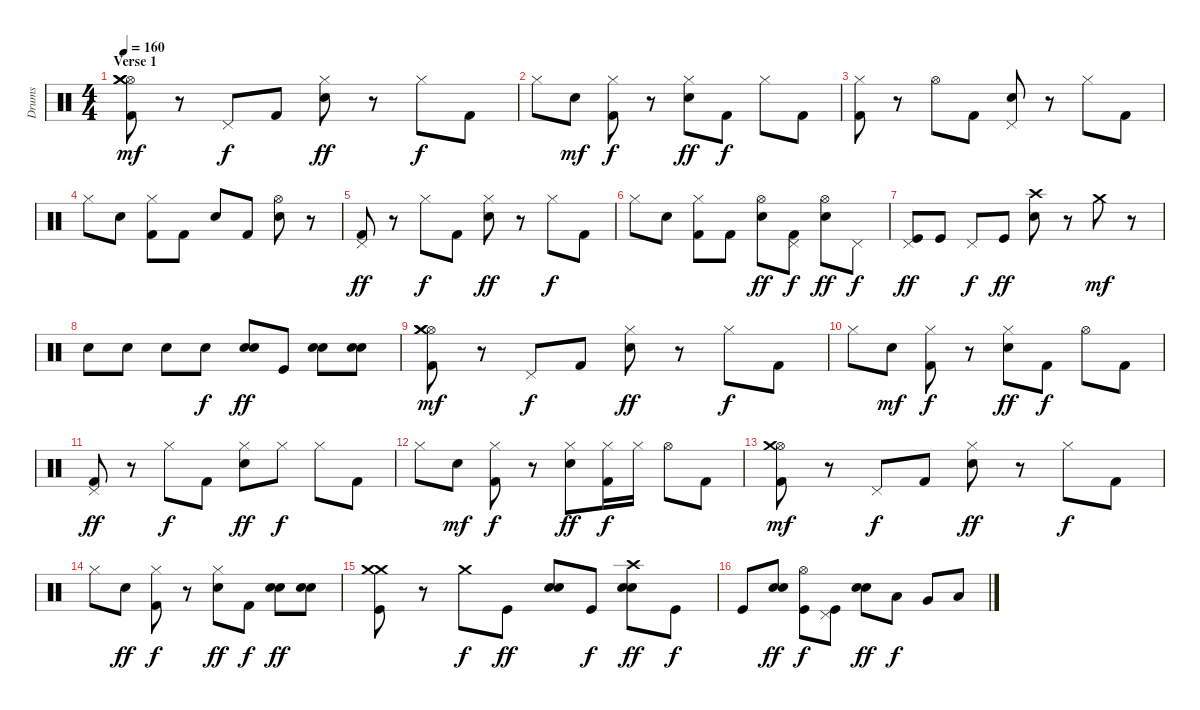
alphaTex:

\track ("Drums" "Drums") {instrument percussion}
\staff {score}
\articulation defaults
\ts (4 4)
\section ("" "Verse 1")
\tempo 160
\clef neutral
\ks c
("Kick (hit) 2" "Hi-Hat (open)" "Crash medium (hit)" "Crash medium (hit)").8{dy mf} r.8 "Pedal Hi-Hat (hit)".8{dy f} "Kick (hit) 2".8 ("Electric Snare (hit)" "Hi-Hat (closed)").8{dy ff} r.8 "Hi-Hat (closed)".8{dy f} "Kick (hit) 2".8 |
"Hi-Hat (closed)".8 "Electric Snare (hit)".8{dy mf} ("Kick (hit) 2" "Hi-Hat (closed)").8{dy f} r.8 ("Electric Snare (hit)" "Hi-Hat (closed)").8{dy ff} "Kick (hit) 2".8{dy f} "Hi-Hat (closed)".8 "Kick (hit) 2".8 |
("Kick (hit) 2" "Hi-Hat (closed)").8 r.8 "Hi-Hat (open)".8 "Kick (hit) 2".8 ("Electric Snare (hit)" "Pedal Hi-Hat (hit)").8 r.8 "Hi-Hat (closed)".8 "Kick (hit) 2".8 |
"Hi-Hat (closed)".8 "Electric Snare (hit)".8 ("Kick (hit) 2" "Hi-Hat (closed)").8 "Kick (hit) 2".8 "Electric Snare (hit)".8 "Kick (hit) 2".8 ("Electric Snare (hit)" "Hi-Hat (open)").8 r.8 |
("Kick (hit) 2" "Pedal Hi-Hat (hit)").8{dy ff} r.8 "Hi-Hat (closed)".8{dy f} "Kick (hit) 2".8 ("Electric Snare (hit)" "Hi-Hat (closed)").8{dy ff} r.8 "Hi-Hat (closed)".8{dy f} "Kick (hit) 2".8 |
"Hi-Hat (closed)".8 "Electric Snare (hit)".8 ("Kick (hit) 2" "Hi-Hat (closed)").8 "Kick (hit) 2".8 ("Electric Snare (hit)" "Hi-Hat (open)").8{dy ff} ("Kick (hit) 2" "Pedal Hi-Hat (hit)").8{dy f} ("Electric Snare (hit)" "Hi-Hat (open)").8{dy ff} "Pedal Hi-Hat (hit)".8{dy f} |
("Kick (hit)" "Pedal Hi-Hat (hit)").8{dy ff} "Kick (hit)".8 "Pedal Hi-Hat (hit)".8{dy f} "Kick (hit)".8{dy ff} ("Electric Snare (hit)" "Crash high (hit)").8 r.8 "Crash medium (hit)".8{dy mf} r.8 |
"Electric Snare (hit)".8 "Electric Snare (hit)".8 "Electric Snare (hit)".8 "Electric Snare (hit)".8{dy f} ("Electric Snare (hit)" "Electric Snare (hit)").8{dy ff} "Kick (hit)".8 ("Electric Snare (hit)" "Electric Snare (hit)").8 ("Electric Snare (hit)" "Electric Snare (hit)").8 |
("Kick (hit) 2" "Hi-Hat (open)" "Crash medium (hit)" "Crash medium (hit)").8{dy mf} r.8 "Pedal Hi-Hat (hit)".8{dy f} "Kick (hit) 2".8 ("Electric Snare (hit)" "Hi-Hat (closed)").8{dy ff} r.8 "Hi-Hat (closed)".8{dy f} "Kick (hit) 2".8 |
"Hi-Hat (closed)".8 "Electric Snare (hit)".8{dy mf} ("Kick (hit) 2" "Hi-Hat (closed)").8{dy f} r.8 ("Electric Snare (hit)" "Hi-Hat (closed)").8{dy ff} "Kick (hit) 2".8{dy f} "Hi-Hat (open)".8 "Kick (hit) 2".8 |
("Kick (hit) 2" "Pedal Hi-Hat (hit)").8{dy ff} r.8 "Hi-Hat (closed)".8{dy f} "Kick (hit) 2".8 ("Electric Snare (hit)" "Hi-Hat (closed)").8{dy ff} "Hi-Hat (closed)".8{dy f} "Hi-Hat (closed)".8 "Kick (hit) 2".8 |
"Hi-Hat (closed)".8 "Electric Snare (hit)".8{dy mf} ("Kick (hit) 2" "Hi-Hat (closed)").8{dy f} r.8 ("Electric Snare (hit)" "Hi-Hat (closed)").8{dy ff} ("Kick (hit) 2" "Hi-Hat (closed)").16{dy f} "Hi-Hat (closed)".16 "Hi-Hat (open)".8 "Kick (hit) 2".8 |
("Kick (hit) 2" "Hi-Hat (open)" "Crash medium (hit)").8{dy mf} r.8 "Pedal Hi-Hat (hit)".8{dy f} "Kick (hit) 2".8 ("Electric Snare (hit)" "Hi-Hat (closed)").8{dy ff} r.8 "Hi-Hat (closed)".8{dy f} "Kick (hit) 2".8 |
"Hi-Hat (closed)".8 "Electric Snare (hit)".8{dy ff} ("Kick (hit) 2" "Hi-Hat (closed)").8{dy f} r.8 ("Electric Snare (hit)" "Hi-Hat (closed)").8{dy ff} "Kick (hit) 2".8{dy f} ("Electric Snare (hit)" "Electric Snare (hit)").8{dy ff} ("Electric Snare (hit)" "Electric Snare (hit)").8 |
("Kick (hit)" "Crash medium (hit)" "Crash medium (hit)").8 r.8 "Crash medium (hit)".8{dy f} "Kick (hit)".8{dy ff} ("Electric Snare (hit)" "Electric Snare (hit)").8 "Kick (hit)".8{dy f} ("Electric Snare (hit)" "Electric Snare (hit)" "Crash high (hit)").8{dy ff} "Kick (hit)".8{dy f} |
"Kick (hit)".8 ("Electric Snare (hit)" "Electric Snare (hit)").8{dy ff} ("Kick (hit)" "Hi-Hat (open)").8{dy f} ("Kick (hit)" "Pedal Hi-Hat (hit)").8 ("Electric Snare (hit)" "Electric Snare (hit)").8{dy ff} "Low Tom (hit)".8{dy f} "Very Low Tom (hit)".8 "Low Floor Tom (hit)".8
